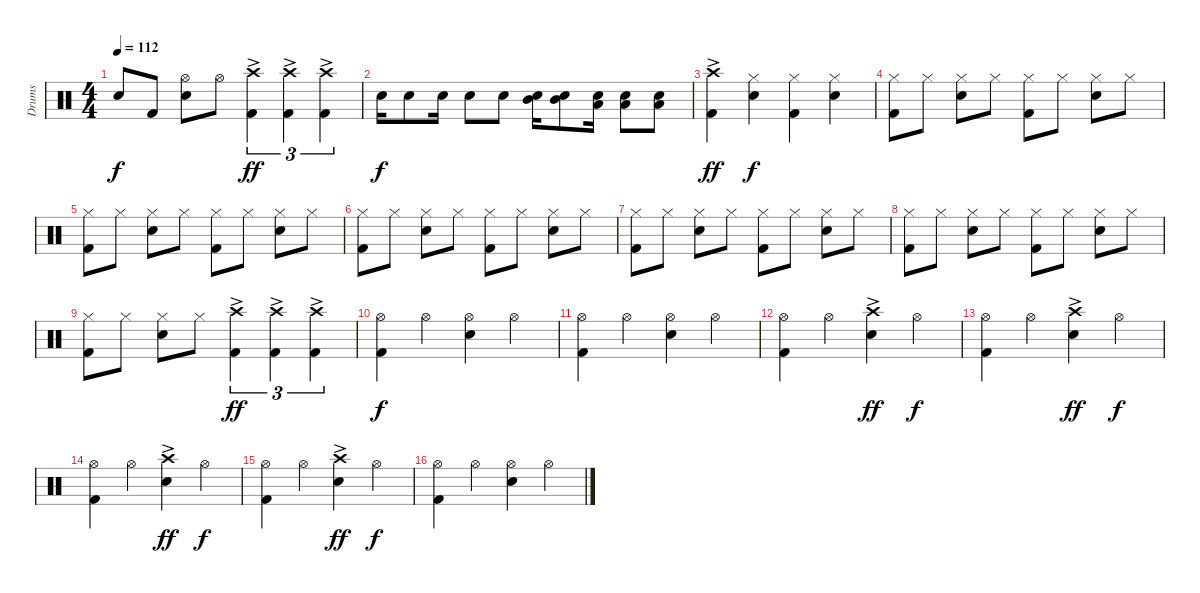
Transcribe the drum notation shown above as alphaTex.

\track ("Drums" "Drums") {instrument percussion}
\staff {score}
\articulation defaults
\ts (4 4)
\tempo 112
\clef neutral
\ks c "Snare (hit)"{t}.8{dy f} "Kick (hit) 2".8
("Snare (hit) 2" "Hi-Hat (open)").8 "Hi-Hat (open)".8 ("Kick (hit) 2" "Crash high (hit)"{ac}).4{tu (3 2) dy ff} ("Kick (hit) 2" "Crash high (hit)"{ac}).4{tu (3 2)} ("Kick (hit) 2" "Crash high (hit)"{ac}).4{tu (3 2)} |
"Electric Snare (hit)".16{dy f} "Electric Snare (hit)".8 "Electric Snare (hit)".16 "Electric Snare (hit)".8 "Electric Snare (hit)".8 ("Electric Snare (hit)" "Mid Tom (hit)").16 ("Electric Snare (hit)" "Mid Tom (hit)").8 ("Electric Snare (hit)" "Low Tom (hit)").16 ("Electric Snare (hit)" "Low Tom (hit)").8 ("Electric Snare (hit)" "Low Tom (hit)").8 |
("Kick (hit) 2" "Crash high (hit)"{ac}).4{dy ff} ("Snare (hit) 2" "Hi-Hat (closed)").4{dy f} ("Kick (hit) 2" "Hi-Hat (closed)").4 ("Snare (hit) 2" "Hi-Hat (closed)").4 |
("Kick (hit) 2" "Hi-Hat (closed)").8 "Hi-Hat (closed)".8 ("Snare (hit) 2" "Hi-Hat (closed)").8 "Hi-Hat (closed)".8 ("Kick (hit) 2" "Hi-Hat (closed)").8 "Hi-Hat (closed)".8 ("Snare (hit) 2" "Hi-Hat (closed)").8 "Hi-Hat (closed)".8 |
("Kick (hit) 2" "Hi-Hat (closed)").8 "Hi-Hat (closed)".8 ("Snare (hit) 2" "Hi-Hat (closed)").8 "Hi-Hat (closed)".8 ("Kick (hit) 2" "Hi-Hat (closed)").8 "Hi-Hat (closed)".8 ("Snare (hit) 2" "Hi-Hat (closed)").8 "Hi-Hat (closed)".8 |
("Kick (hit) 2" "Hi-Hat (closed)").8 "Hi-Hat (closed)".8 ("Snare (hit) 2" "Hi-Hat (closed)").8 "Hi-Hat (closed)".8 ("Kick (hit) 2" "Hi-Hat (closed)").8 "Hi-Hat (closed)".8 ("Snare (hit) 2" "Hi-Hat (closed)").8 "Hi-Hat (closed)".8 |
("Kick (hit) 2" "Hi-Hat (closed)").8 "Hi-Hat (closed)".8 ("Snare (hit) 2" "Hi-Hat (closed)").8 "Hi-Hat (closed)".8 ("Kick (hit) 2" "Hi-Hat (closed)").8 "Hi-Hat (closed)".8 ("Snare (hit) 2" "Hi-Hat (closed)").8 "Hi-Hat (closed)".8 |
("Kick (hit) 2" "Hi-Hat (closed)").8 "Hi-Hat (closed)".8 ("Snare (hit) 2" "Hi-Hat (closed)").8 "Hi-Hat (closed)".8 ("Kick (hit) 2" "Hi-Hat (closed)").8 "Hi-Hat (closed)".8 ("Snare (hit) 2" "Hi-Hat (closed)").8 "Hi-Hat (closed)".8 |
("Kick (hit) 2" "Hi-Hat (closed)").8 "Hi-Hat (closed)".8 ("Snare (hit) 2" "Hi-Hat (closed)").8 "Hi-Hat (closed)".8 ("Kick (hit) 2" "Crash high (hit)"{ac}).4{tu (3 2) dy ff} ("Kick (hit) 2" "Crash high (hit)"{ac}).4{tu (3 2)} ("Kick (hit) 2" "Crash high (hit)"{ac}).4{tu (3 2)} |
("Kick (hit) 2" "Hi-Hat (open)").4{dy f} "Hi-Hat (open)".4 ("Snare (hit) 2" "Hi-Hat (open)").4 "Hi-Hat (open)".4 |
("Kick (hit) 2" "Hi-Hat (open)").4 "Hi-Hat (open)".4 ("Snare (hit) 2" "Hi-Hat (open)").4 "Hi-Hat (open)".4 |
("Kick (hit) 2" "Hi-Hat (open)").4 "Hi-Hat (open)".4 ("Snare (hit) 2" "Crash high (hit)"{ac}).4{dy ff} "Hi-Hat (open)".4{dy f} |
("Kick (hit) 2" "Hi-Hat (open)").4 "Hi-Hat (open)".4 ("Snare (hit) 2" "Crash high (hit)"{ac}).4{dy ff} "Hi-Hat (open)".4{dy f} |
("Kick (hit) 2" "Hi-Hat (open)").4 "Hi-Hat (open)".4 ("Snare (hit) 2" "Crash high (hit)"{ac}).4{dy ff} "Hi-Hat (open)".4{dy f} |
("Kick (hit) 2" "Hi-Hat (open)").4 "Hi-Hat (open)".4 ("Snare (hit) 2" "Crash high (hit)"{ac}).4{dy ff} "Hi-Hat (open)".4{dy f} |
("Kick (hit) 2" "Hi-Hat (open)").4 "Hi-Hat (open)".4 ("Snare (hit) 2" "Hi-Hat (open)").4 "Hi-Hat (open)".4
